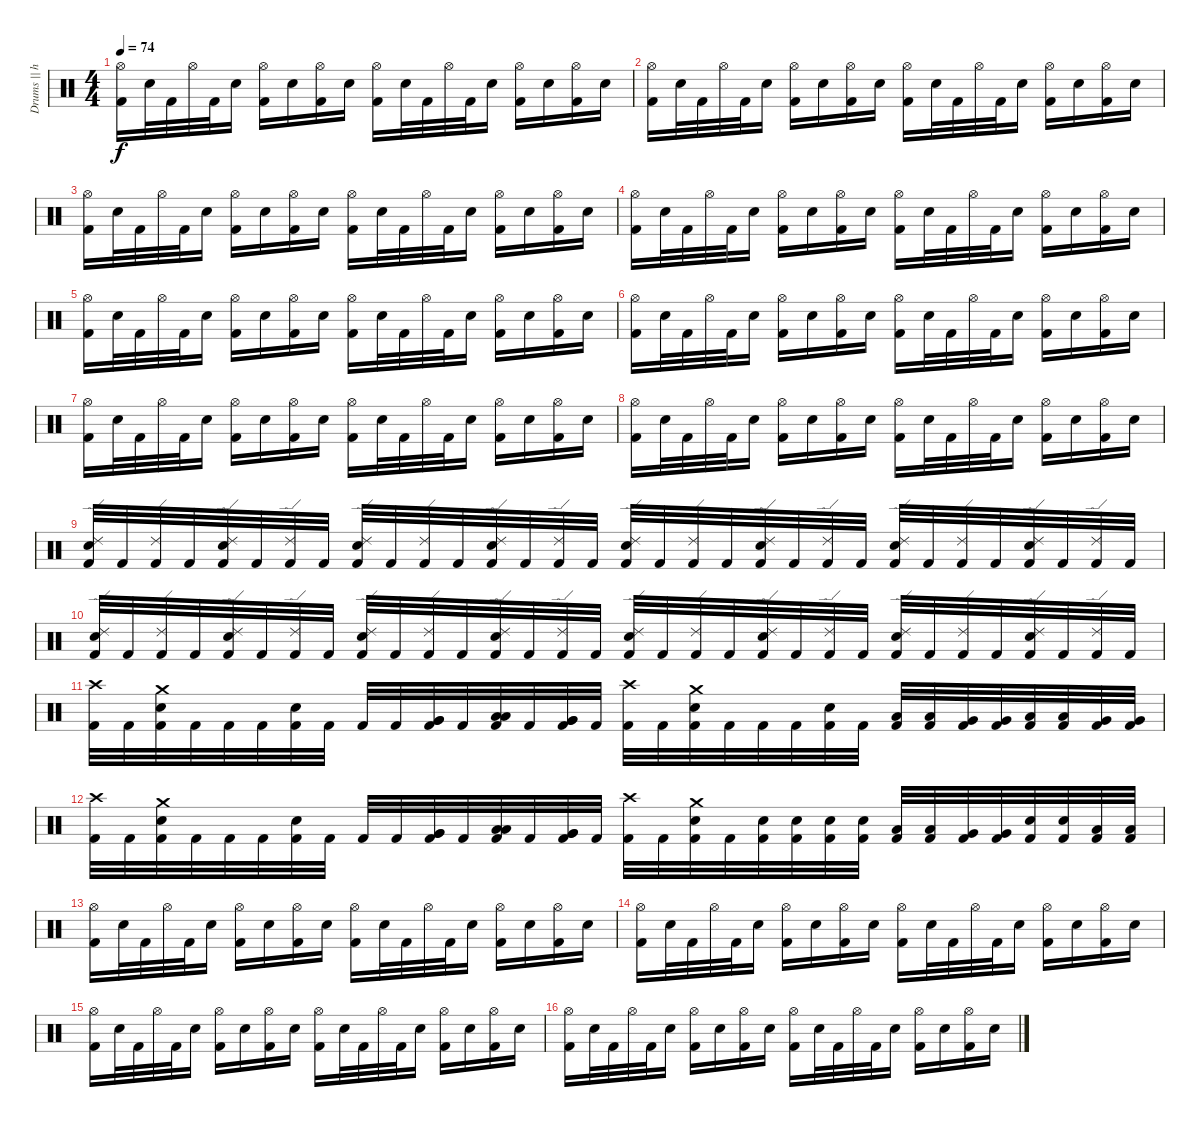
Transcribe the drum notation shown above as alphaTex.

\track ("Drums || have a look at my other tabs!" "Drums || h") {instrument percussion}
\staff {score}
\articulation defaults
\ts (4 4)
\tempo 74
\clef neutral
\ks c
("Hi-Hat (open)" "Kick (hit) 2").16{dy f} "Electric Snare (hit)".32 "Kick (hit) 2".32 "Hi-Hat (open)".32 "Kick (hit) 2".32 "Electric Snare (hit)".16 ("Hi-Hat (open)" "Kick (hit) 2").16 "Electric Snare (hit)".16 ("Hi-Hat (open)" "Kick (hit) 2").16 "Electric Snare (hit)".16 ("Hi-Hat (open)" "Kick (hit) 2").16 "Electric Snare (hit)".32 "Kick (hit) 2".32 "Hi-Hat (open)".32 "Kick (hit) 2".32 "Electric Snare (hit)".16 ("Hi-Hat (open)" "Kick (hit) 2").16 "Electric Snare (hit)".16 ("Hi-Hat (open)" "Kick (hit) 2").16 "Electric Snare (hit)".16 |
("Hi-Hat (open)" "Kick (hit) 2").16 "Electric Snare (hit)".32 "Kick (hit) 2".32 "Hi-Hat (open)".32 "Kick (hit) 2".32 "Electric Snare (hit)".16 ("Hi-Hat (open)" "Kick (hit) 2").16 "Electric Snare (hit)".16 ("Hi-Hat (open)" "Kick (hit) 2").16 "Electric Snare (hit)".16 ("Hi-Hat (open)" "Kick (hit) 2").16 "Electric Snare (hit)".32 "Kick (hit) 2".32 "Hi-Hat (open)".32 "Kick (hit) 2".32 "Electric Snare (hit)".16 ("Hi-Hat (open)" "Kick (hit) 2").16 "Electric Snare (hit)".16 ("Hi-Hat (open)" "Kick (hit) 2").16 "Electric Snare (hit)".16 |
("Hi-Hat (open)" "Kick (hit) 2").16 "Electric Snare (hit)".32 "Kick (hit) 2".32 "Hi-Hat (open)".32 "Kick (hit) 2".32 "Electric Snare (hit)".16 ("Hi-Hat (open)" "Kick (hit) 2").16 "Electric Snare (hit)".16 ("Hi-Hat (open)" "Kick (hit) 2").16 "Electric Snare (hit)".16 ("Hi-Hat (open)" "Kick (hit) 2").16 "Electric Snare (hit)".32 "Kick (hit) 2".32 "Hi-Hat (open)".32 "Kick (hit) 2".32 "Electric Snare (hit)".16 ("Hi-Hat (open)" "Kick (hit) 2").16 "Electric Snare (hit)".16 ("Hi-Hat (open)" "Kick (hit) 2").16 "Electric Snare (hit)".16 |
("Hi-Hat (open)" "Kick (hit) 2").16 "Electric Snare (hit)".32 "Kick (hit) 2".32 "Hi-Hat (open)".32 "Kick (hit) 2".32 "Electric Snare (hit)".16 ("Hi-Hat (open)" "Kick (hit) 2").16 "Electric Snare (hit)".16 ("Hi-Hat (open)" "Kick (hit) 2").16 "Electric Snare (hit)".16 ("Hi-Hat (open)" "Kick (hit) 2").16 "Electric Snare (hit)".32 "Kick (hit) 2".32 "Hi-Hat (open)".32 "Kick (hit) 2".32 "Electric Snare (hit)".16 ("Hi-Hat (open)" "Kick (hit) 2").16 "Electric Snare (hit)".16 ("Hi-Hat (open)" "Kick (hit) 2").16 "Electric Snare (hit)".16 |
("Hi-Hat (open)" "Kick (hit) 2").16 "Electric Snare (hit)".32 "Kick (hit) 2".32 "Hi-Hat (open)".32 "Kick (hit) 2".32 "Electric Snare (hit)".16 ("Hi-Hat (open)" "Kick (hit) 2").16 "Electric Snare (hit)".16 ("Hi-Hat (open)" "Kick (hit) 2").16 "Electric Snare (hit)".16 ("Hi-Hat (open)" "Kick (hit) 2").16 "Electric Snare (hit)".32 "Kick (hit) 2".32 "Hi-Hat (open)".32 "Kick (hit) 2".32 "Electric Snare (hit)".16 ("Hi-Hat (open)" "Kick (hit) 2").16 "Electric Snare (hit)".16 ("Hi-Hat (open)" "Kick (hit) 2").16 "Electric Snare (hit)".16 |
("Hi-Hat (open)" "Kick (hit) 2").16 "Electric Snare (hit)".32 "Kick (hit) 2".32 "Hi-Hat (open)".32 "Kick (hit) 2".32 "Electric Snare (hit)".16 ("Hi-Hat (open)" "Kick (hit) 2").16 "Electric Snare (hit)".16 ("Hi-Hat (open)" "Kick (hit) 2").16 "Electric Snare (hit)".16 ("Hi-Hat (open)" "Kick (hit) 2").16 "Electric Snare (hit)".32 "Kick (hit) 2".32 "Hi-Hat (open)".32 "Kick (hit) 2".32 "Electric Snare (hit)".16 ("Hi-Hat (open)" "Kick (hit) 2").16 "Electric Snare (hit)".16 ("Hi-Hat (open)" "Kick (hit) 2").16 "Electric Snare (hit)".16 |
("Hi-Hat (open)" "Kick (hit) 2").16 "Electric Snare (hit)".32 "Kick (hit) 2".32 "Hi-Hat (open)".32 "Kick (hit) 2".32 "Electric Snare (hit)".16 ("Hi-Hat (open)" "Kick (hit) 2").16 "Electric Snare (hit)".16 ("Hi-Hat (open)" "Kick (hit) 2").16 "Electric Snare (hit)".16 ("Hi-Hat (open)" "Kick (hit) 2").16 "Electric Snare (hit)".32 "Kick (hit) 2".32 "Hi-Hat (open)".32 "Kick (hit) 2".32 "Electric Snare (hit)".16 ("Hi-Hat (open)" "Kick (hit) 2").16 "Electric Snare (hit)".16 ("Hi-Hat (open)" "Kick (hit) 2").16 "Electric Snare (hit)".16 |
("Hi-Hat (open)" "Kick (hit) 2").16 "Electric Snare (hit)".32 "Kick (hit) 2".32 "Hi-Hat (open)".32 "Kick (hit) 2".32 "Electric Snare (hit)".16 ("Hi-Hat (open)" "Kick (hit) 2").16 "Electric Snare (hit)".16 ("Hi-Hat (open)" "Kick (hit) 2").16 "Electric Snare (hit)".16 ("Hi-Hat (open)" "Kick (hit) 2").16 "Electric Snare (hit)".32 "Kick (hit) 2".32 "Hi-Hat (open)".32 "Kick (hit) 2".32 "Electric Snare (hit)".16 ("Hi-Hat (open)" "Kick (hit) 2").16 "Electric Snare (hit)".16 ("Hi-Hat (open)" "Kick (hit) 2").16 "Electric Snare (hit)".16 |
("Ride (edge) 2" "Electric Snare (hit)" "Kick (hit) 2").32 "Kick (hit) 2".32 ("Ride (edge) 2" "Kick (hit) 2").32 "Kick (hit) 2".32 ("Ride (edge) 2" "Electric Snare (hit)" "Kick (hit) 2").32 "Kick (hit) 2".32 ("Ride (edge) 2" "Kick (hit) 2").32 "Kick (hit) 2".32 ("Ride (edge) 2" "Electric Snare (hit)" "Kick (hit) 2").32 "Kick (hit) 2".32 ("Ride (edge) 2" "Kick (hit) 2").32 "Kick (hit) 2".32 ("Ride (edge) 2" "Electric Snare (hit)" "Kick (hit) 2").32 "Kick (hit) 2".32 ("Ride (edge) 2" "Kick (hit) 2").32 "Kick (hit) 2".32 ("Ride (edge) 2" "Electric Snare (hit)" "Kick (hit) 2").32 "Kick (hit) 2".32 ("Ride (edge) 2" "Kick (hit) 2").32 "Kick (hit) 2".32 ("Ride (edge) 2" "Electric Snare (hit)" "Kick (hit) 2").32 "Kick (hit) 2".32 ("Ride (edge) 2" "Kick (hit) 2").32 "Kick (hit) 2".32 ("Ride (edge) 2" "Electric Snare (hit)" "Kick (hit) 2").32 "Kick (hit) 2".32 ("Ride (edge) 2" "Kick (hit) 2").32 "Kick (hit) 2".32 ("Ride (edge) 2" "Electric Snare (hit)" "Kick (hit) 2").32 "Kick (hit) 2".32 ("Ride (edge) 2" "Kick (hit) 2").32 "Kick (hit) 2".32 |
("Ride (edge) 2" "Electric Snare (hit)" "Kick (hit) 2").32 "Kick (hit) 2".32 ("Ride (edge) 2" "Kick (hit) 2").32 "Kick (hit) 2".32 ("Ride (edge) 2" "Electric Snare (hit)" "Kick (hit) 2").32 "Kick (hit) 2".32 ("Ride (edge) 2" "Kick (hit) 2").32 "Kick (hit) 2".32 ("Ride (edge) 2" "Electric Snare (hit)" "Kick (hit) 2").32 "Kick (hit) 2".32 ("Ride (edge) 2" "Kick (hit) 2").32 "Kick (hit) 2".32 ("Ride (edge) 2" "Electric Snare (hit)" "Kick (hit) 2").32 "Kick (hit) 2".32 ("Ride (edge) 2" "Kick (hit) 2").32 "Kick (hit) 2".32 ("Ride (edge) 2" "Electric Snare (hit)" "Kick (hit) 2").32 "Kick (hit) 2".32 ("Ride (edge) 2" "Kick (hit) 2").32 "Kick (hit) 2".32 ("Ride (edge) 2" "Electric Snare (hit)" "Kick (hit) 2").32 "Kick (hit) 2".32 ("Ride (edge) 2" "Kick (hit) 2").32 "Kick (hit) 2".32 ("Ride (edge) 2" "Electric Snare (hit)" "Kick (hit) 2").32 "Kick (hit) 2".32 ("Ride (edge) 2" "Kick (hit) 2").32 "Kick (hit) 2".32 ("Ride (edge) 2" "Electric Snare (hit)" "Kick (hit) 2").32 "Kick (hit) 2".32 ("Ride (edge) 2" "Kick (hit) 2").32 "Kick (hit) 2".32 |
("Crash high (hit)" "Kick (hit) 2").32 "Kick (hit) 2".32 ("Crash medium (hit)" "Electric Snare (hit)" "Kick (hit) 2").32 "Kick (hit) 2".32 "Kick (hit) 2".32 "Kick (hit) 2".32 ("Electric Snare (hit)" "Kick (hit) 2").32 "Kick (hit) 2".32 "Kick (hit) 2".32 "Kick (hit) 2".32 ("Very Low Tom (hit)" "Very Low Tom (hit)" "Kick (hit) 2").32 "Kick (hit) 2".32 ("Low Floor Tom (hit)" "Low Floor Tom (hit)" "Kick (hit) 2").32 "Kick (hit) 2".32 ("Very Low Tom (hit)" "Very Low Tom (hit)" "Kick (hit) 2").32 "Kick (hit) 2".32 ("Crash high (hit)" "Kick (hit) 2").32 "Kick (hit) 2".32 ("Crash medium (hit)" "Electric Snare (hit)" "Kick (hit) 2").32 "Kick (hit) 2".32 "Kick (hit) 2".32 "Kick (hit) 2".32 ("Electric Snare (hit)" "Kick (hit) 2").32 "Kick (hit) 2".32 ("Low Tom (hit)" "Kick (hit) 2").32 ("Low Tom (hit)" "Kick (hit) 2").32 ("Very Low Tom (hit)" "Kick (hit) 2").32 ("Very Low Tom (hit)" "Kick (hit) 2").32 ("Low Floor Tom (hit)" "Kick (hit) 2").32 ("Low Floor Tom (hit)" "Kick (hit) 2").32 ("Very Low Tom (hit)" "Kick (hit) 2").32 ("Very Low Tom (hit)" "Kick (hit) 2").32 |
("Crash high (hit)" "Kick (hit) 2").32 "Kick (hit) 2".32 ("Crash medium (hit)" "Electric Snare (hit)" "Kick (hit) 2").32 "Kick (hit) 2".32 "Kick (hit) 2".32 "Kick (hit) 2".32 ("Electric Snare (hit)" "Kick (hit) 2").32 "Kick (hit) 2".32 "Kick (hit) 2".32 "Kick (hit) 2".32 ("Very Low Tom (hit)" "Very Low Tom (hit)" "Kick (hit) 2").32 "Kick (hit) 2".32 ("Low Floor Tom (hit)" "Low Floor Tom (hit)" "Kick (hit) 2").32 "Kick (hit) 2".32 ("Very Low Tom (hit)" "Very Low Tom (hit)" "Kick (hit) 2").32 "Kick (hit) 2".32 ("Crash high (hit)" "Kick (hit) 2").32 "Kick (hit) 2".32 ("Crash medium (hit)" "Electric Snare (hit)" "Kick (hit) 2").32 "Kick (hit) 2".32 ("Electric Snare (hit)" "Kick (hit) 2").32 ("Electric Snare (hit)" "Kick (hit) 2").32 ("Electric Snare (hit)" "Kick (hit) 2").32 ("Electric Snare (hit)" "Kick (hit) 2").32 ("Low Tom (hit)" "Kick (hit) 2").32 ("Low Tom (hit)" "Kick (hit) 2").32 ("Very Low Tom (hit)" "Kick (hit) 2").32 ("Very Low Tom (hit)" "Kick (hit) 2").32 ("Electric Snare (hit)" "Kick (hit) 2").32 ("Electric Snare (hit)" "Kick (hit) 2").32 ("Low Floor Tom (hit)" "Kick (hit) 2").32 ("Low Floor Tom (hit)" "Kick (hit) 2").32 |
("Hi-Hat (open)" "Kick (hit) 2").16 "Electric Snare (hit)".32 "Kick (hit) 2".32 "Hi-Hat (open)".32 "Kick (hit) 2".32 "Electric Snare (hit)".16 ("Hi-Hat (open)" "Kick (hit) 2").16 "Electric Snare (hit)".16 ("Hi-Hat (open)" "Kick (hit) 2").16 "Electric Snare (hit)".16 ("Hi-Hat (open)" "Kick (hit) 2").16 "Electric Snare (hit)".32 "Kick (hit) 2".32 "Hi-Hat (open)".32 "Kick (hit) 2".32 "Electric Snare (hit)".16 ("Hi-Hat (open)" "Kick (hit) 2").16 "Electric Snare (hit)".16 ("Hi-Hat (open)" "Kick (hit) 2").16 "Electric Snare (hit)".16 |
("Hi-Hat (open)" "Kick (hit) 2").16 "Electric Snare (hit)".32 "Kick (hit) 2".32 "Hi-Hat (open)".32 "Kick (hit) 2".32 "Electric Snare (hit)".16 ("Hi-Hat (open)" "Kick (hit) 2").16 "Electric Snare (hit)".16 ("Hi-Hat (open)" "Kick (hit) 2").16 "Electric Snare (hit)".16 ("Hi-Hat (open)" "Kick (hit) 2").16 "Electric Snare (hit)".32 "Kick (hit) 2".32 "Hi-Hat (open)".32 "Kick (hit) 2".32 "Electric Snare (hit)".16 ("Hi-Hat (open)" "Kick (hit) 2").16 "Electric Snare (hit)".16 ("Hi-Hat (open)" "Kick (hit) 2").16 "Electric Snare (hit)".16 |
("Hi-Hat (open)" "Kick (hit) 2").16 "Electric Snare (hit)".32 "Kick (hit) 2".32 "Hi-Hat (open)".32 "Kick (hit) 2".32 "Electric Snare (hit)".16 ("Hi-Hat (open)" "Kick (hit) 2").16 "Electric Snare (hit)".16 ("Hi-Hat (open)" "Kick (hit) 2").16 "Electric Snare (hit)".16 ("Hi-Hat (open)" "Kick (hit) 2").16 "Electric Snare (hit)".32 "Kick (hit) 2".32 "Hi-Hat (open)".32 "Kick (hit) 2".32 "Electric Snare (hit)".16 ("Hi-Hat (open)" "Kick (hit) 2").16 "Electric Snare (hit)".16 ("Hi-Hat (open)" "Kick (hit) 2").16 "Electric Snare (hit)".16 |
("Hi-Hat (open)" "Kick (hit) 2").16 "Electric Snare (hit)".32 "Kick (hit) 2".32 "Hi-Hat (open)".32 "Kick (hit) 2".32 "Electric Snare (hit)".16 ("Hi-Hat (open)" "Kick (hit) 2").16 "Electric Snare (hit)".16 ("Hi-Hat (open)" "Kick (hit) 2").16 "Electric Snare (hit)".16 ("Hi-Hat (open)" "Kick (hit) 2").16 "Electric Snare (hit)".32 "Kick (hit) 2".32 "Hi-Hat (open)".32 "Kick (hit) 2".32 "Electric Snare (hit)".16 ("Hi-Hat (open)" "Kick (hit) 2").16 "Electric Snare (hit)".16 ("Hi-Hat (open)" "Kick (hit) 2").16 "Electric Snare (hit)".16
